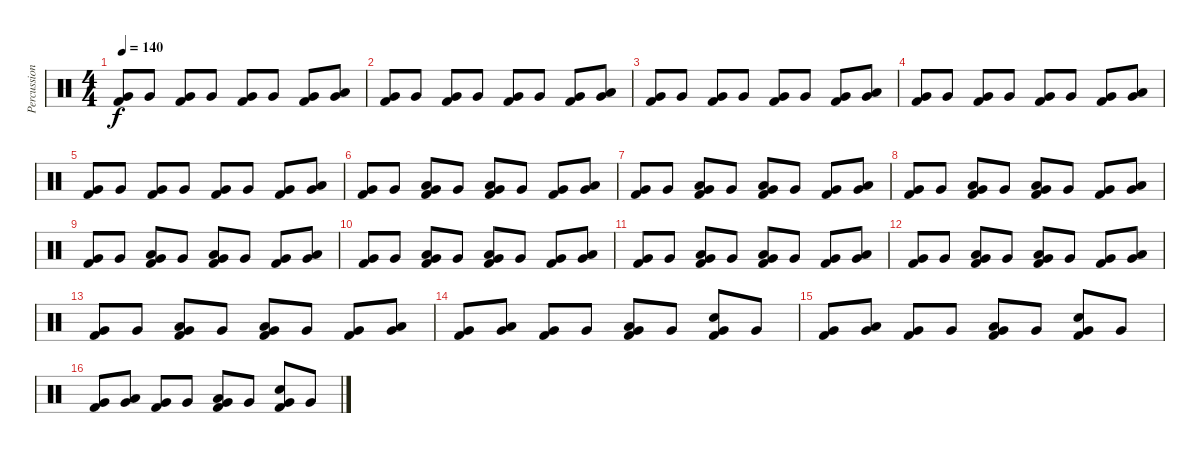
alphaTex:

\track ("Percussion" "Percussion") {instrument percussion}
\staff {score}
\articulation defaults
\ts (4 4)
\tempo 140
\clef neutral
\ks c
("Very Low Tom (hit)" "Kick (hit) 2").8{dy f} "Very Low Tom (hit)".8 ("Very Low Tom (hit)" "Kick (hit) 2").8 "Very Low Tom (hit)".8 ("Very Low Tom (hit)" "Kick (hit) 2").8 "Very Low Tom (hit)".8 ("Very Low Tom (hit)" "Kick (hit) 2").8 ("Low Tom (hit)" "Very Low Tom (hit)").8 |
("Very Low Tom (hit)" "Kick (hit) 2").8 "Very Low Tom (hit)".8 ("Very Low Tom (hit)" "Kick (hit) 2").8 "Very Low Tom (hit)".8 ("Very Low Tom (hit)" "Kick (hit) 2").8 "Very Low Tom (hit)".8 ("Very Low Tom (hit)" "Kick (hit) 2").8 ("Low Tom (hit)" "Very Low Tom (hit)").8 |
("Very Low Tom (hit)" "Kick (hit) 2").8 "Very Low Tom (hit)".8 ("Very Low Tom (hit)" "Kick (hit) 2").8 "Very Low Tom (hit)".8 ("Very Low Tom (hit)" "Kick (hit) 2").8 "Very Low Tom (hit)".8 ("Very Low Tom (hit)" "Kick (hit) 2").8 ("Low Tom (hit)" "Very Low Tom (hit)").8 |
("Very Low Tom (hit)" "Kick (hit) 2").8 "Very Low Tom (hit)".8 ("Very Low Tom (hit)" "Kick (hit) 2").8 "Very Low Tom (hit)".8 ("Very Low Tom (hit)" "Kick (hit) 2").8 "Very Low Tom (hit)".8 ("Very Low Tom (hit)" "Kick (hit) 2").8 ("Low Tom (hit)" "Very Low Tom (hit)").8 |
("Very Low Tom (hit)" "Kick (hit) 2").8 "Very Low Tom (hit)".8 ("Very Low Tom (hit)" "Kick (hit) 2").8 "Very Low Tom (hit)".8 ("Very Low Tom (hit)" "Kick (hit) 2").8 "Very Low Tom (hit)".8 ("Very Low Tom (hit)" "Kick (hit) 2").8 ("Low Tom (hit)" "Very Low Tom (hit)").8 |
("Very Low Tom (hit)" "Kick (hit) 2").8 "Very Low Tom (hit)".8 ("Low Tom (hit)" "Very Low Tom (hit)" "Kick (hit) 2").8 "Very Low Tom (hit)".8 ("Low Tom (hit)" "Very Low Tom (hit)" "Kick (hit) 2").8 "Very Low Tom (hit)".8 ("Very Low Tom (hit)" "Kick (hit) 2").8 ("Low Tom (hit)" "Very Low Tom (hit)").8 |
("Very Low Tom (hit)" "Kick (hit) 2").8 "Very Low Tom (hit)".8 ("Low Tom (hit)" "Very Low Tom (hit)" "Kick (hit) 2").8 "Very Low Tom (hit)".8 ("Low Tom (hit)" "Very Low Tom (hit)" "Kick (hit) 2").8 "Very Low Tom (hit)".8 ("Very Low Tom (hit)" "Kick (hit) 2").8 ("Low Tom (hit)" "Very Low Tom (hit)").8 |
("Very Low Tom (hit)" "Kick (hit) 2").8 "Very Low Tom (hit)".8 ("Low Tom (hit)" "Very Low Tom (hit)" "Kick (hit) 2").8 "Very Low Tom (hit)".8 ("Low Tom (hit)" "Very Low Tom (hit)" "Kick (hit) 2").8 "Very Low Tom (hit)".8 ("Very Low Tom (hit)" "Kick (hit) 2").8 ("Low Tom (hit)" "Very Low Tom (hit)").8 |
("Very Low Tom (hit)" "Kick (hit) 2").8 "Very Low Tom (hit)".8 ("Low Tom (hit)" "Very Low Tom (hit)" "Kick (hit) 2").8 "Very Low Tom (hit)".8 ("Low Tom (hit)" "Very Low Tom (hit)" "Kick (hit) 2").8 "Very Low Tom (hit)".8 ("Very Low Tom (hit)" "Kick (hit) 2").8 ("Low Tom (hit)" "Very Low Tom (hit)").8 |
("Very Low Tom (hit)" "Kick (hit) 2").8 "Very Low Tom (hit)".8 ("Low Tom (hit)" "Very Low Tom (hit)" "Kick (hit) 2").8 "Very Low Tom (hit)".8 ("Low Tom (hit)" "Very Low Tom (hit)" "Kick (hit) 2").8 "Very Low Tom (hit)".8 ("Very Low Tom (hit)" "Kick (hit) 2").8 ("Low Tom (hit)" "Very Low Tom (hit)").8 |
("Very Low Tom (hit)" "Kick (hit) 2").8 "Very Low Tom (hit)".8 ("Low Tom (hit)" "Very Low Tom (hit)" "Kick (hit) 2").8 "Very Low Tom (hit)".8 ("Low Tom (hit)" "Very Low Tom (hit)" "Kick (hit) 2").8 "Very Low Tom (hit)".8 ("Very Low Tom (hit)" "Kick (hit) 2").8 ("Low Tom (hit)" "Very Low Tom (hit)").8 |
("Very Low Tom (hit)" "Kick (hit) 2").8 "Very Low Tom (hit)".8 ("Low Tom (hit)" "Very Low Tom (hit)" "Kick (hit) 2").8 "Very Low Tom (hit)".8 ("Low Tom (hit)" "Very Low Tom (hit)" "Kick (hit) 2").8 "Very Low Tom (hit)".8 ("Very Low Tom (hit)" "Kick (hit) 2").8 ("Low Tom (hit)" "Very Low Tom (hit)").8 |
("Very Low Tom (hit)" "Kick (hit) 2").8 "Very Low Tom (hit)".8 ("Low Tom (hit)" "Very Low Tom (hit)" "Kick (hit) 2").8 "Very Low Tom (hit)".8 ("Low Tom (hit)" "Very Low Tom (hit)" "Kick (hit) 2").8 "Very Low Tom (hit)".8 ("Very Low Tom (hit)" "Kick (hit) 2").8 ("Low Tom (hit)" "Very Low Tom (hit)").8 |
("Very Low Tom (hit)" "Kick (hit) 2").8 ("Low Tom (hit)" "Very Low Tom (hit)").8 ("Very Low Tom (hit)" "Kick (hit) 2").8 "Very Low Tom (hit)".8 ("Low Tom (hit)" "Very Low Tom (hit)" "Kick (hit) 2").8 "Very Low Tom (hit)".8 ("Very Low Tom (hit)" "Snare (hit) 2" "Kick (hit) 2").8 "Very Low Tom (hit)".8 |
("Very Low Tom (hit)" "Kick (hit) 2").8 ("Low Tom (hit)" "Very Low Tom (hit)").8 ("Very Low Tom (hit)" "Kick (hit) 2").8 "Very Low Tom (hit)".8 ("Low Tom (hit)" "Very Low Tom (hit)" "Kick (hit) 2").8 "Very Low Tom (hit)".8 ("Very Low Tom (hit)" "Snare (hit) 2" "Kick (hit) 2").8 "Very Low Tom (hit)".8 |
("Very Low Tom (hit)" "Kick (hit) 2").8 ("Low Tom (hit)" "Very Low Tom (hit)").8 ("Very Low Tom (hit)" "Kick (hit) 2").8 "Very Low Tom (hit)".8 ("Low Tom (hit)" "Very Low Tom (hit)" "Kick (hit) 2").8 "Very Low Tom (hit)".8 ("Very Low Tom (hit)" "Snare (hit) 2" "Kick (hit) 2").8 "Very Low Tom (hit)".8
